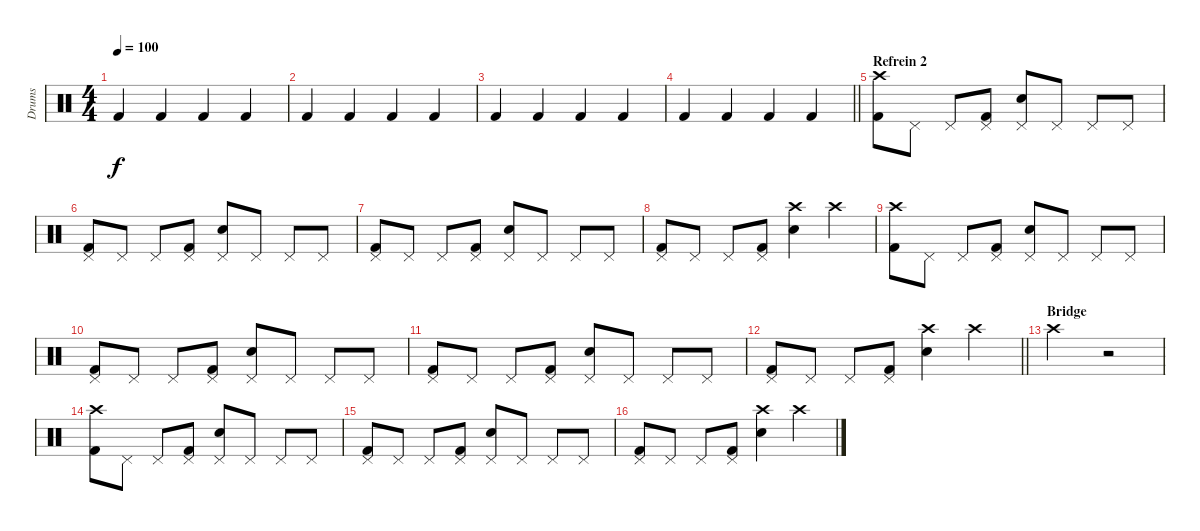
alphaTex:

\track ("Drums" "Drums") {instrument percussion}
\staff {score}
\articulation defaults
\ts (4 4)
\tempo 100
\clef neutral
\ks c "Kick (hit) 2".4{dy f} "Kick (hit) 2".4 "Kick (hit) 2".4 "Kick (hit) 2".4
|
"Kick (hit) 2".4 "Kick (hit) 2".4 "Kick (hit) 2".4 "Kick (hit) 2".4 |
"Kick (hit) 2".4 "Kick (hit) 2".4 "Kick (hit) 2".4 "Kick (hit) 2".4 |
\barLineRight lightlight "Kick (hit) 2".4 "Kick (hit) 2".4 "Kick (hit) 2".4 "Kick (hit) 2".4
|
\section ("" "Refrein 2")
("Crash high (hit)" "Kick (hit) 2").8 "Pedal Hi-Hat (hit)".8 "Pedal Hi-Hat (hit)".8 ("Pedal Hi-Hat (hit)" "Kick (hit) 2").8 ("Pedal Hi-Hat (hit)" "Snare (hit) 2").8 "Pedal Hi-Hat (hit)".8 "Pedal Hi-Hat (hit)".8 "Pedal Hi-Hat (hit)".8 |
("Pedal Hi-Hat (hit)" "Kick (hit) 2").8 "Pedal Hi-Hat (hit)".8 "Pedal Hi-Hat (hit)".8 ("Pedal Hi-Hat (hit)" "Kick (hit) 2").8 ("Pedal Hi-Hat (hit)" "Snare (hit) 2").8 "Pedal Hi-Hat (hit)".8 "Pedal Hi-Hat (hit)".8 "Pedal Hi-Hat (hit)".8 |
("Pedal Hi-Hat (hit)" "Kick (hit) 2").8 "Pedal Hi-Hat (hit)".8 "Pedal Hi-Hat (hit)".8 ("Pedal Hi-Hat (hit)" "Kick (hit) 2").8 ("Pedal Hi-Hat (hit)" "Snare (hit) 2").8 "Pedal Hi-Hat (hit)".8 "Pedal Hi-Hat (hit)".8 "Pedal Hi-Hat (hit)".8 |
("Pedal Hi-Hat (hit)" "Kick (hit) 2").8 "Pedal Hi-Hat (hit)".8 "Pedal Hi-Hat (hit)".8 ("Pedal Hi-Hat (hit)" "Kick (hit) 2").8 ("Crash high (hit)" "Snare (hit) 2").4 "Crash high (hit)".4 |
("Crash high (hit)" "Kick (hit) 2").8 "Pedal Hi-Hat (hit)".8 "Pedal Hi-Hat (hit)".8 ("Pedal Hi-Hat (hit)" "Kick (hit) 2").8 ("Pedal Hi-Hat (hit)" "Snare (hit) 2").8 "Pedal Hi-Hat (hit)".8 "Pedal Hi-Hat (hit)".8 "Pedal Hi-Hat (hit)".8 |
("Pedal Hi-Hat (hit)" "Kick (hit) 2").8 "Pedal Hi-Hat (hit)".8 "Pedal Hi-Hat (hit)".8 ("Pedal Hi-Hat (hit)" "Kick (hit) 2").8 ("Pedal Hi-Hat (hit)" "Snare (hit) 2").8 "Pedal Hi-Hat (hit)".8 "Pedal Hi-Hat (hit)".8 "Pedal Hi-Hat (hit)".8 |
("Pedal Hi-Hat (hit)" "Kick (hit) 2").8 "Pedal Hi-Hat (hit)".8 "Pedal Hi-Hat (hit)".8 ("Pedal Hi-Hat (hit)" "Kick (hit) 2").8 ("Pedal Hi-Hat (hit)" "Snare (hit) 2").8 "Pedal Hi-Hat (hit)".8 "Pedal Hi-Hat (hit)".8 "Pedal Hi-Hat (hit)".8 |
\barLineRight lightlight
("Pedal Hi-Hat (hit)" "Kick (hit) 2").8 "Pedal Hi-Hat (hit)".8 "Pedal Hi-Hat (hit)".8 ("Pedal Hi-Hat (hit)" "Kick (hit) 2").8 ("Crash high (hit)" "Snare (hit) 2").4 "Crash high (hit)".4 |
\section ("" "Bridge")
"Crash high (hit)".2 r.2 |
("Crash high (hit)" "Kick (hit) 2").8 "Pedal Hi-Hat (hit)".8 "Pedal Hi-Hat (hit)".8 ("Pedal Hi-Hat (hit)" "Kick (hit) 2").8 ("Pedal Hi-Hat (hit)" "Snare (hit) 2").8 "Pedal Hi-Hat (hit)".8 "Pedal Hi-Hat (hit)".8 "Pedal Hi-Hat (hit)".8 |
("Pedal Hi-Hat (hit)" "Kick (hit) 2").8 "Pedal Hi-Hat (hit)".8 "Pedal Hi-Hat (hit)".8 ("Pedal Hi-Hat (hit)" "Kick (hit) 2").8 ("Pedal Hi-Hat (hit)" "Snare (hit) 2").8 "Pedal Hi-Hat (hit)".8 "Pedal Hi-Hat (hit)".8 "Pedal Hi-Hat (hit)".8 |
("Pedal Hi-Hat (hit)" "Kick (hit) 2").8 "Pedal Hi-Hat (hit)".8 "Pedal Hi-Hat (hit)".8 ("Pedal Hi-Hat (hit)" "Kick (hit) 2").8 ("Crash high (hit)" "Snare (hit) 2").4 "Crash high (hit)".4
